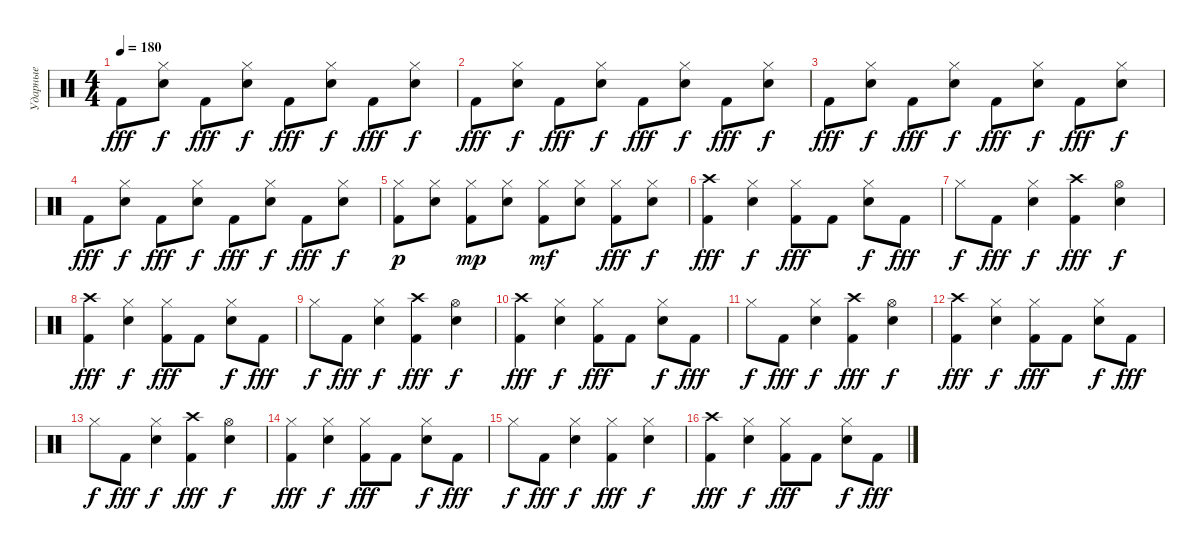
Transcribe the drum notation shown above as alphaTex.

\track ("Ударные" "Ударные") {instrument percussion}
\staff {score}
\articulation defaults
\ts (4 4)
\tempo 180
\clef neutral
\ks c "Kick (hit) 2".8{dy fff}
("Electric Snare (hit)" "Hi-Hat (closed)").8{dy f} "Kick (hit) 2".8{dy fff} ("Electric Snare (hit)" "Hi-Hat (closed)").8{dy f} "Kick (hit) 2".8{dy fff} ("Electric Snare (hit)" "Hi-Hat (closed)").8{dy f} "Kick (hit) 2".8{dy fff} ("Electric Snare (hit)" "Hi-Hat (closed)").8{dy f} |
"Kick (hit) 2".8{dy fff} ("Electric Snare (hit)" "Hi-Hat (closed)").8{dy f} "Kick (hit) 2".8{dy fff} ("Electric Snare (hit)" "Hi-Hat (closed)").8{dy f} "Kick (hit) 2".8{dy fff} ("Electric Snare (hit)" "Hi-Hat (closed)").8{dy f} "Kick (hit) 2".8{dy fff} ("Electric Snare (hit)" "Hi-Hat (closed)").8{dy f} |
"Kick (hit) 2".8{dy fff} ("Electric Snare (hit)" "Hi-Hat (closed)").8{dy f} "Kick (hit) 2".8{dy fff} ("Electric Snare (hit)" "Hi-Hat (closed)").8{dy f} "Kick (hit) 2".8{dy fff} ("Electric Snare (hit)" "Hi-Hat (closed)").8{dy f} "Kick (hit) 2".8{dy fff} ("Electric Snare (hit)" "Hi-Hat (closed)").8{dy f} |
"Kick (hit) 2".8{dy fff} ("Electric Snare (hit)" "Hi-Hat (closed)").8{dy f} "Kick (hit) 2".8{dy fff} ("Electric Snare (hit)" "Hi-Hat (closed)").8{dy f} "Kick (hit) 2".8{dy fff} ("Electric Snare (hit)" "Hi-Hat (closed)").8{dy f} "Kick (hit) 2".8{dy fff} ("Electric Snare (hit)" "Hi-Hat (closed)").8{dy f} |
("Kick (hit) 2" "Hi-Hat (closed)").8{dy p} ("Electric Snare (hit)" "Hi-Hat (closed)").8 ("Kick (hit) 2" "Hi-Hat (closed)").8{dy mp} ("Electric Snare (hit)" "Hi-Hat (closed)").8 ("Kick (hit) 2" "Hi-Hat (closed)").8{dy mf} ("Electric Snare (hit)" "Hi-Hat (closed)").8 ("Kick (hit) 2" "Hi-Hat (closed)").8{dy fff} ("Electric Snare (hit)" "Hi-Hat (closed)").8{dy f} |
("Kick (hit) 2" "Crash high (hit)").4{dy fff} ("Electric Snare (hit)" "Hi-Hat (closed)").4{dy f} ("Kick (hit) 2" "Hi-Hat (closed)").8{dy fff} "Kick (hit) 2".8 ("Electric Snare (hit)" "Hi-Hat (closed)").8{dy f} "Kick (hit) 2".8{dy fff} |
"Hi-Hat (closed)".8{dy f} "Kick (hit) 2".8{dy fff} ("Electric Snare (hit)" "Hi-Hat (closed)").4{dy f} ("Kick (hit) 2" "Crash high (hit)").4{dy fff} ("Electric Snare (hit)" "Hi-Hat (open)").4{dy f} |
("Kick (hit) 2" "Crash high (hit)").4{dy fff} ("Electric Snare (hit)" "Hi-Hat (closed)").4{dy f} ("Kick (hit) 2" "Hi-Hat (closed)").8{dy fff} "Kick (hit) 2".8 ("Electric Snare (hit)" "Hi-Hat (closed)").8{dy f} "Kick (hit) 2".8{dy fff} |
"Hi-Hat (closed)".8{dy f} "Kick (hit) 2".8{dy fff} ("Electric Snare (hit)" "Hi-Hat (closed)").4{dy f} ("Kick (hit) 2" "Crash high (hit)").4{dy fff} ("Electric Snare (hit)" "Hi-Hat (open)").4{dy f} |
("Kick (hit) 2" "Crash high (hit)").4{dy fff} ("Electric Snare (hit)" "Hi-Hat (closed)").4{dy f} ("Kick (hit) 2" "Hi-Hat (closed)").8{dy fff} "Kick (hit) 2".8 ("Electric Snare (hit)" "Hi-Hat (closed)").8{dy f} "Kick (hit) 2".8{dy fff} |
"Hi-Hat (closed)".8{dy f} "Kick (hit) 2".8{dy fff} ("Electric Snare (hit)" "Hi-Hat (closed)").4{dy f} ("Kick (hit) 2" "Crash high (hit)").4{dy fff} ("Electric Snare (hit)" "Hi-Hat (open)").4{dy f} |
("Kick (hit) 2" "Crash high (hit)").4{dy fff} ("Electric Snare (hit)" "Hi-Hat (closed)").4{dy f} ("Kick (hit) 2" "Hi-Hat (closed)").8{dy fff} "Kick (hit) 2".8 ("Electric Snare (hit)" "Hi-Hat (closed)").8{dy f} "Kick (hit) 2".8{dy fff} |
"Hi-Hat (closed)".8{dy f} "Kick (hit) 2".8{dy fff} ("Electric Snare (hit)" "Hi-Hat (closed)").4{dy f} ("Kick (hit) 2" "Crash high (hit)").4{dy fff} ("Electric Snare (hit)" "Hi-Hat (open)").4{dy f} |
("Kick (hit) 2" "Hi-Hat (closed)").4{dy fff} ("Electric Snare (hit)" "Hi-Hat (closed)").4{dy f} ("Kick (hit) 2" "Hi-Hat (closed)").8{dy fff} "Kick (hit) 2".8 ("Electric Snare (hit)" "Hi-Hat (closed)").8{dy f} "Kick (hit) 2".8{dy fff} |
"Hi-Hat (closed)".8{dy f} "Kick (hit) 2".8{dy fff} ("Electric Snare (hit)" "Hi-Hat (closed)").4{dy f} ("Kick (hit) 2" "Hi-Hat (closed)").4{dy fff} ("Electric Snare (hit)" "Hi-Hat (closed)").4{dy f} |
("Kick (hit) 2" "Crash high (hit)").4{dy fff} ("Electric Snare (hit)" "Hi-Hat (closed)").4{dy f} ("Kick (hit) 2" "Hi-Hat (closed)").8{dy fff} "Kick (hit) 2".8 ("Electric Snare (hit)" "Hi-Hat (closed)").8{dy f} "Kick (hit) 2".8{dy fff}
